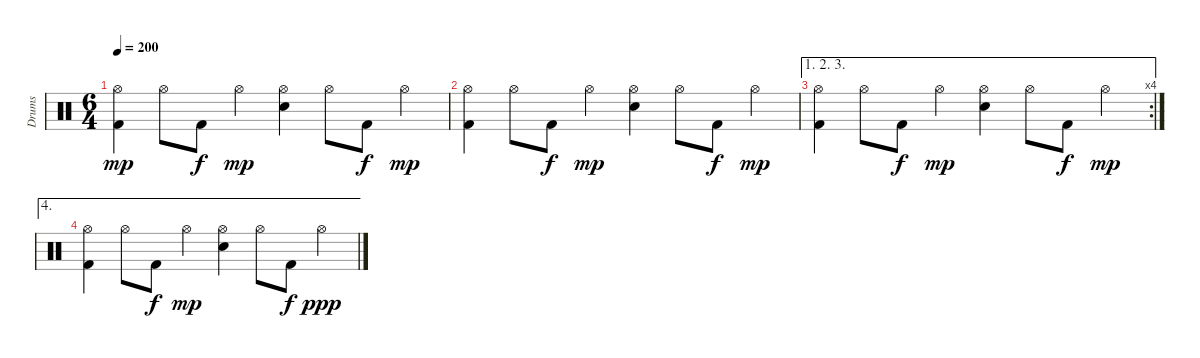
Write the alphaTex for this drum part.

\track ("Drums" "Drums") {instrument percussion}
\staff {score}
\articulation defaults
\ts (6 4)
\tempo 200
\clef neutral
\ks c
("Hi-Hat (open)" "Kick (hit) 2").4{dy mp} "Hi-Hat (open)".8 "Kick (hit) 2".8{dy f} "Hi-Hat (open)".4{dy mp} ("Hi-Hat (open)" "Snare (hit) 2").4 "Hi-Hat (open)".8 "Kick (hit) 2".8{dy f} "Hi-Hat (open)".4{dy mp} |
("Hi-Hat (open)" "Kick (hit) 2").4 "Hi-Hat (open)".8 "Kick (hit) 2".8{dy f} "Hi-Hat (open)".4{dy mp} ("Hi-Hat (open)" "Snare (hit) 2").4 "Hi-Hat (open)".8 "Kick (hit) 2".8{dy f} "Hi-Hat (open)".4{dy mp} |
\ae (1 2 3)
\rc 4
("Hi-Hat (open)" "Kick (hit) 2").4 "Hi-Hat (open)".8 "Kick (hit) 2".8{dy f} "Hi-Hat (open)".4{dy mp} ("Hi-Hat (open)" "Snare (hit) 2").4 "Hi-Hat (open)".8 "Kick (hit) 2".8{dy f} "Hi-Hat (open)".4{dy mp} |
\ae 4
("Hi-Hat (open)" "Kick (hit) 2").4 "Hi-Hat (open)".8 "Kick (hit) 2".8{dy f} "Hi-Hat (open)".4{dy mp} ("Hi-Hat (open)" "Snare (hit) 2").4 "Hi-Hat (open)".8 "Kick (hit) 2".8{dy f} "Hi-Hat (open)".4{dy ppp}
